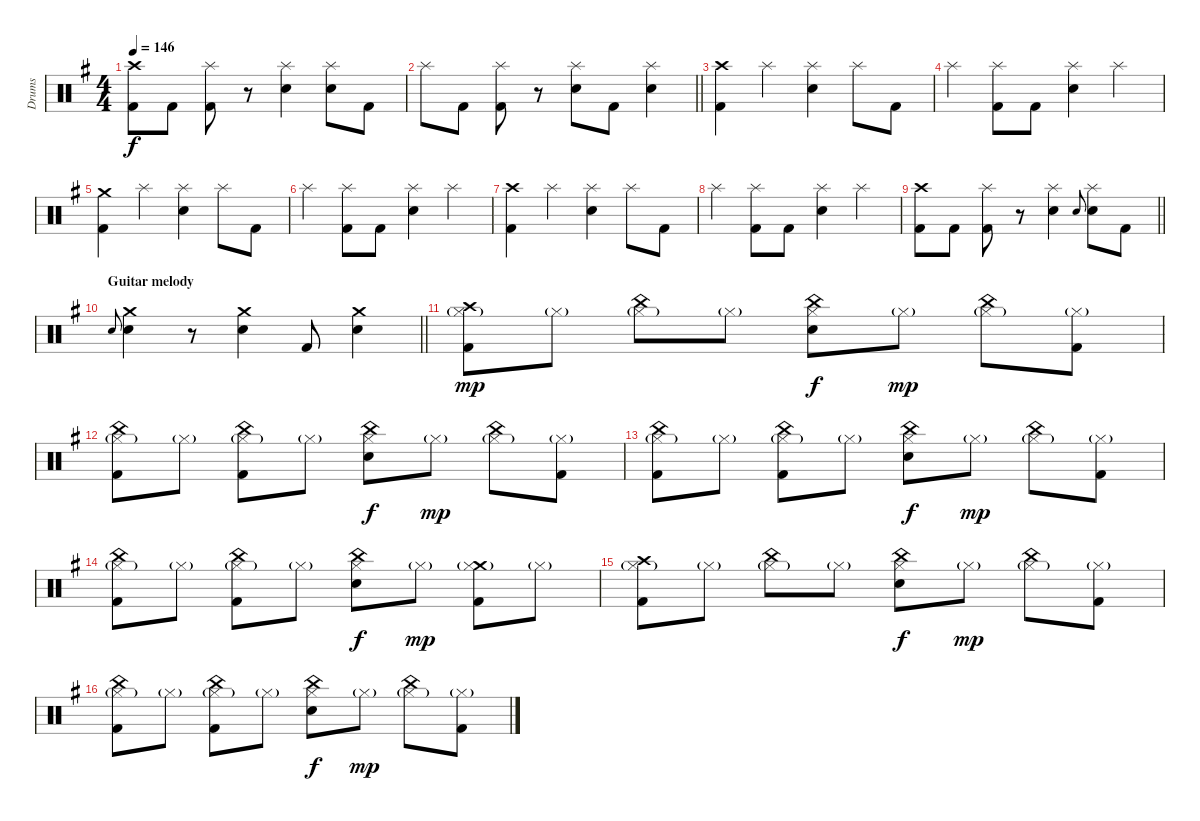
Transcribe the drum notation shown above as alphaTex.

\track ("Drums" "Drums") {instrument percussion}
\staff {score}
\articulation defaults
\ts (4 4)
\tempo 146
\clef neutral
\ks eminor
("Crash high (hit)" "Kick (hit) 2").8{dy f} "Kick (hit) 2".8 ("Splash (hit)" "Kick (hit) 2").8 r.8 ("Splash (hit)" "Snare (hit) 2").4 ("Splash (hit)" "Snare (hit) 2").8 "Kick (hit) 2".8 |
\barLineRight lightlight "Splash (hit)".8 "Kick (hit) 2".8
("Splash (hit)" "Kick (hit) 2").8 r.8 ("Splash (hit)" "Snare (hit) 2").8 "Kick (hit) 2".8 ("Splash (hit)" "Snare (hit) 2").4 |
("Crash high (hit)" "Kick (hit) 2").4 "Splash (hit)".4 ("Splash (hit)" "Snare (hit) 2").4 "Splash (hit)".8 "Kick (hit) 2".8 |
"Splash (hit)".4 ("Splash (hit)" "Kick (hit) 2").8 "Kick (hit) 2".8 ("Splash (hit)" "Snare (hit) 2").4 "Splash (hit)".4 |
("Crash medium (hit)" "Kick (hit) 2").4 "Splash (hit)".4 ("Splash (hit)" "Snare (hit) 2").4 "Splash (hit)".8 "Kick (hit) 2".8 |
"Splash (hit)".4 ("Splash (hit)" "Kick (hit) 2").8 "Kick (hit) 2".8 ("Splash (hit)" "Snare (hit) 2").4 "Splash (hit)".4 |
("Crash high (hit)" "Kick (hit) 2").4 "Splash (hit)".4 ("Splash (hit)" "Snare (hit) 2").4 "Splash (hit)".8 "Kick (hit) 2".8 |
"Splash (hit)".4 ("Splash (hit)" "Kick (hit) 2").8 "Kick (hit) 2".8 ("Splash (hit)" "Snare (hit) 2").4 "Splash (hit)".4 |
\barLineRight lightlight
("Crash high (hit)" "Kick (hit) 2").8 "Kick (hit) 2".8 ("Splash (hit)" "Kick (hit) 2").8 r.8 ("Splash (hit)" "Snare (hit) 2").4 "Snare (hit) 2".8{gr onbeat} ("Splash (hit)" "Snare (hit) 2").8 "Kick (hit) 2".8 |
\section ("" "Guitar melody")
\barLineRight lightlight "Snare (hit) 2".8{gr onbeat}
("Crash medium (hit)" "Snare (hit) 2").4 r.8 ("Crash medium (hit)" "Snare (hit) 2").4 "Kick (hit) 2".8 ("Crash medium (hit)" "Snare (hit) 2").4 |
("Crash high (hit)" "Hi-Hat (closed)"{g} "Kick (hit) 2").8{dy mp} "Hi-Hat (closed)"{g}.8 ("China (hit)" "Hi-Hat (closed)"{g}).8 "Hi-Hat (closed)"{g}.8 ("China (hit)" "Hi-Hat (closed)" "Snare (hit) 2").8{dy f} "Hi-Hat (closed)"{g}.8{dy mp} ("China (hit)" "Hi-Hat (closed)"{g}).8 ("Hi-Hat (closed)"{g} "Kick (hit) 2").8 |
("China (hit)" "Hi-Hat (closed)"{g} "Kick (hit) 2").8 "Hi-Hat (closed)"{g}.8 ("China (hit)" "Hi-Hat (closed)"{g} "Kick (hit) 2").8 "Hi-Hat (closed)"{g}.8 ("China (hit)" "Hi-Hat (closed)" "Snare (hit) 2").8{dy f} "Hi-Hat (closed)"{g}.8{dy mp} ("China (hit)" "Hi-Hat (closed)"{g}).8 ("Hi-Hat (closed)"{g} "Kick (hit) 2").8 |
("China (hit)" "Hi-Hat (closed)"{g} "Kick (hit) 2").8 "Hi-Hat (closed)"{g}.8 ("China (hit)" "Hi-Hat (closed)"{g} "Kick (hit) 2").8 "Hi-Hat (closed)"{g}.8 ("China (hit)" "Hi-Hat (closed)" "Snare (hit) 2").8{dy f} "Hi-Hat (closed)"{g}.8{dy mp} ("China (hit)" "Hi-Hat (closed)"{g}).8 ("Hi-Hat (closed)"{g} "Kick (hit) 2").8 |
("China (hit)" "Hi-Hat (closed)"{g} "Kick (hit) 2").8 "Hi-Hat (closed)"{g}.8 ("China (hit)" "Hi-Hat (closed)"{g} "Kick (hit) 2").8 "Hi-Hat (closed)"{g}.8 ("China (hit)" "Hi-Hat (closed)" "Snare (hit) 2").8{dy f} "Hi-Hat (closed)"{g}.8{dy mp} ("Crash medium (hit)" "Hi-Hat (closed)"{g} "Kick (hit) 2").8 "Hi-Hat (closed)"{g}.8 |
("Crash high (hit)" "Hi-Hat (closed)"{g} "Kick (hit) 2").8 "Hi-Hat (closed)"{g}.8 ("China (hit)" "Hi-Hat (closed)"{g}).8 "Hi-Hat (closed)"{g}.8 ("China (hit)" "Hi-Hat (closed)" "Snare (hit) 2").8{dy f} "Hi-Hat (closed)"{g}.8{dy mp} ("China (hit)" "Hi-Hat (closed)"{g}).8 ("Hi-Hat (closed)"{g} "Kick (hit) 2").8 |
("China (hit)" "Hi-Hat (closed)"{g} "Kick (hit) 2").8 "Hi-Hat (closed)"{g}.8 ("China (hit)" "Hi-Hat (closed)"{g} "Kick (hit) 2").8 "Hi-Hat (closed)"{g}.8 ("China (hit)" "Hi-Hat (closed)" "Snare (hit) 2").8{dy f} "Hi-Hat (closed)"{g}.8{dy mp} ("China (hit)" "Hi-Hat (closed)"{g}).8 ("Hi-Hat (closed)"{g} "Kick (hit) 2").8
